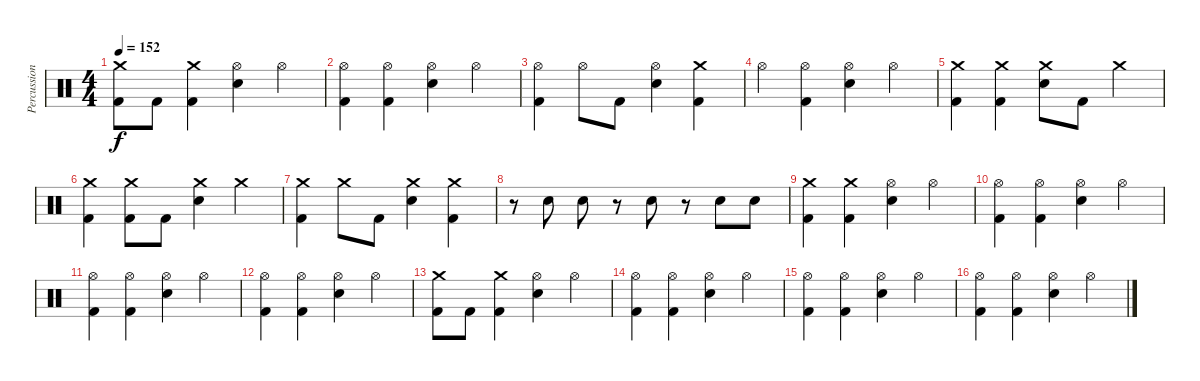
\track ("Percussion" "Percussion") {instrument percussion}
\staff {score}
\articulation defaults
\ts (4 4)
\tempo 152
\clef neutral
\ks c
("Crash medium (hit)" "Kick (hit) 2").8{dy f} "Kick (hit) 2".8 ("Crash medium (hit)" "Kick (hit) 2").4 ("Hi-Hat (open)" "Electric Snare (hit)").4 "Hi-Hat (open)".4 |
("Hi-Hat (open)" "Kick (hit) 2").4 ("Hi-Hat (open)" "Kick (hit) 2").4 ("Hi-Hat (open)" "Electric Snare (hit)").4 "Hi-Hat (open)".4 |
("Hi-Hat (open)" "Kick (hit) 2").4 "Hi-Hat (open)".8 "Kick (hit) 2".8 ("Hi-Hat (open)" "Electric Snare (hit)").4 ("Crash medium (hit)" "Kick (hit) 2").4 |
"Hi-Hat (open)".4 ("Hi-Hat (open)" "Kick (hit) 2").4 ("Hi-Hat (open)" "Electric Snare (hit)").4 "Hi-Hat (open)".4 |
("Crash medium (hit)" "Kick (hit) 2").4 ("Crash medium (hit)" "Kick (hit) 2").4 ("Crash medium (hit)" "Electric Snare (hit)").8 "Kick (hit) 2".8 "Crash medium (hit)".4 |
("Crash medium (hit)" "Kick (hit) 2").4 ("Crash medium (hit)" "Kick (hit) 2").8 "Kick (hit) 2".8 ("Crash medium (hit)" "Electric Snare (hit)").4 "Crash medium (hit)".4 |
("Crash medium (hit)" "Kick (hit) 2").4 "Crash medium (hit)".8 "Kick (hit) 2".8 ("Crash medium (hit)" "Electric Snare (hit)").4 ("Crash medium (hit)" "Kick (hit) 2").4 |
r.8 "Electric Snare (hit)".8 "Electric Snare (hit)".8 r.8 "Electric Snare (hit)".8 r.8 "Electric Snare (hit)".8 "Electric Snare (hit)".8 |
("Crash medium (hit)" "Kick (hit) 2").4 ("Crash medium (hit)" "Kick (hit) 2").4 ("Hi-Hat (open)" "Electric Snare (hit)").4 "Hi-Hat (open)".4 |
("Hi-Hat (open)" "Kick (hit) 2").4 ("Hi-Hat (open)" "Kick (hit) 2").4 ("Hi-Hat (open)" "Electric Snare (hit)").4 "Hi-Hat (open)".4 |
("Hi-Hat (open)" "Kick (hit) 2").4 ("Hi-Hat (open)" "Kick (hit) 2").4 ("Hi-Hat (open)" "Electric Snare (hit)").4 "Hi-Hat (open)".4 |
("Hi-Hat (open)" "Kick (hit) 2").4 ("Hi-Hat (open)" "Kick (hit) 2").4 ("Hi-Hat (open)" "Electric Snare (hit)").4 "Hi-Hat (open)".4 |
("Crash medium (hit)" "Kick (hit) 2").8 "Kick (hit) 2".8 ("Crash medium (hit)" "Kick (hit) 2").4 ("Hi-Hat (open)" "Electric Snare (hit)").4 "Hi-Hat (open)".4 |
("Hi-Hat (open)" "Kick (hit) 2").4 ("Hi-Hat (open)" "Kick (hit) 2").4 ("Hi-Hat (open)" "Electric Snare (hit)").4 "Hi-Hat (open)".4 |
("Hi-Hat (open)" "Kick (hit) 2").4 ("Hi-Hat (open)" "Kick (hit) 2").4 ("Hi-Hat (open)" "Electric Snare (hit)").4 "Hi-Hat (open)".4 |
("Hi-Hat (open)" "Kick (hit) 2").4 ("Hi-Hat (open)" "Kick (hit) 2").4 ("Hi-Hat (open)" "Electric Snare (hit)").4 "Hi-Hat (open)".4
